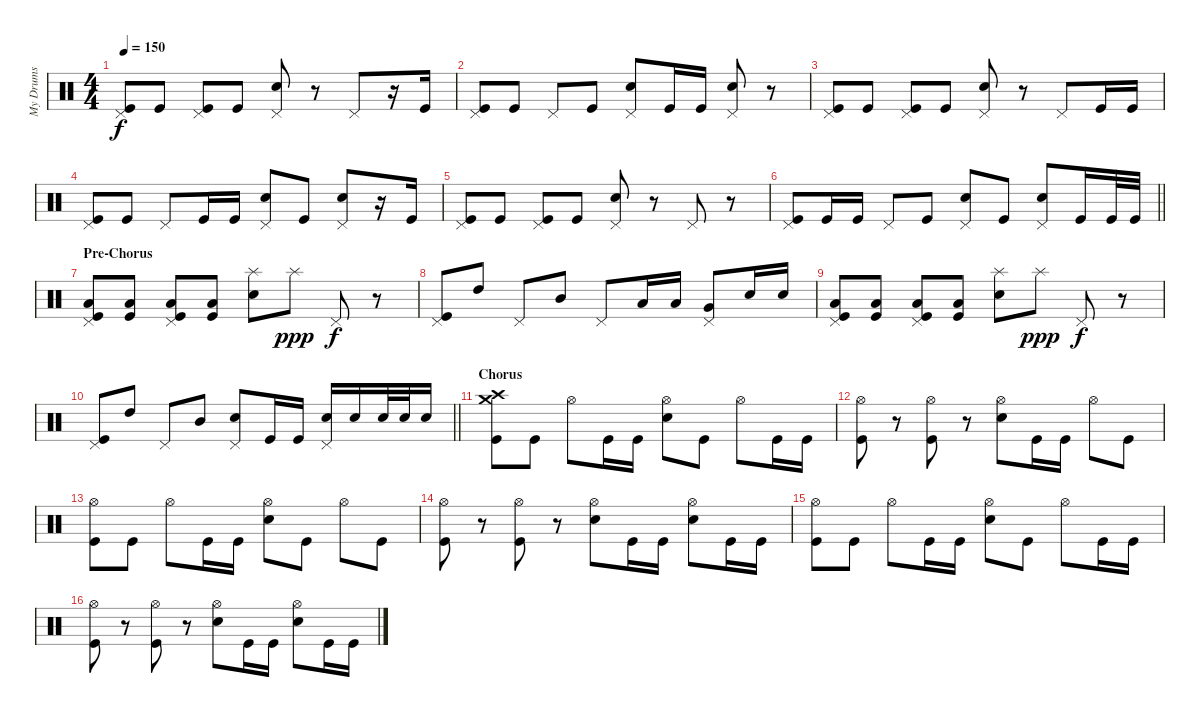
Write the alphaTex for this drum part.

\track ("My Drums" "My Drums") {instrument percussion}
\staff {score}
\articulation defaults
\ts (4 4)
\tempo 150
\clef neutral
\ks c
("Pedal Hi-Hat (hit)" "Kick (hit)").8{dy f} "Kick (hit)".8 ("Pedal Hi-Hat (hit)" "Kick (hit)").8 "Kick (hit)".8 ("Pedal Hi-Hat (hit)" "Snare (hit) 2").8 r.8 "Pedal Hi-Hat (hit)".8 r.16 "Kick (hit)".16 |
("Pedal Hi-Hat (hit)" "Kick (hit)").8 "Kick (hit)".8 "Pedal Hi-Hat (hit)".8 "Kick (hit)".8 ("Pedal Hi-Hat (hit)" "Snare (hit) 2").8 "Kick (hit)".16 "Kick (hit)".16 ("Pedal Hi-Hat (hit)" "Snare (hit) 2").8 r.8 |
("Pedal Hi-Hat (hit)" "Kick (hit)").8 "Kick (hit)".8 ("Pedal Hi-Hat (hit)" "Kick (hit)").8 "Kick (hit)".8 ("Pedal Hi-Hat (hit)" "Snare (hit) 2").8 r.8 "Pedal Hi-Hat (hit)".8 "Kick (hit)".16 "Kick (hit)".16 |
("Pedal Hi-Hat (hit)" "Kick (hit)").8 "Kick (hit)".8 "Pedal Hi-Hat (hit)".8 "Kick (hit)".16 "Kick (hit)".16 ("Pedal Hi-Hat (hit)" "Snare (hit) 2").8 "Kick (hit)".8 ("Pedal Hi-Hat (hit)" "Snare (hit) 2").8 r.16 "Kick (hit)".16 |
("Pedal Hi-Hat (hit)" "Kick (hit)").8 "Kick (hit)".8 ("Pedal Hi-Hat (hit)" "Kick (hit)").8 "Kick (hit)".8 ("Pedal Hi-Hat (hit)" "Snare (hit) 2").8 r.8 "Pedal Hi-Hat (hit)".8 r.8 |
\barLineRight lightlight
("Pedal Hi-Hat (hit)" "Kick (hit)").8 "Kick (hit)".16 "Kick (hit)".16 "Pedal Hi-Hat (hit)".8 "Kick (hit)".8 ("Pedal Hi-Hat (hit)" "Snare (hit) 2").8 "Kick (hit)".8 ("Pedal Hi-Hat (hit)" "Snare (hit) 2").8 "Kick (hit)".16 "Kick (hit)".32 "Kick (hit)".32 |
\section ("" "Pre-Chorus")
("Pedal Hi-Hat (hit)" "Low Floor Tom (hit)" "Kick (hit)").8 ("Low Floor Tom (hit)" "Kick (hit)").8 ("Pedal Hi-Hat (hit)" "Low Floor Tom (hit)" "Kick (hit)").8 ("Low Floor Tom (hit)" "Kick (hit)").8 ("Splash (hit)" "Snare (hit) 2").8 "Splash (hit)".8{dy ppp} "Pedal Hi-Hat (hit)".8{dy f} r.8 |
("Pedal Hi-Hat (hit)" "Kick (hit)").8 "High Tom (hit)".8 "Pedal Hi-Hat (hit)".8 "Mid Tom (hit)".8 "Pedal Hi-Hat (hit)".8 "Low Tom (hit)".16 "Low Tom (hit)".16 ("Pedal Hi-Hat (hit)" "Very Low Tom (hit)").8 "Snare (hit) 2".16 "Snare (hit) 2".16 |
("Pedal Hi-Hat (hit)" "Low Floor Tom (hit)" "Kick (hit)").8 ("Low Floor Tom (hit)" "Kick (hit)").8 ("Pedal Hi-Hat (hit)" "Low Floor Tom (hit)" "Kick (hit)").8 ("Low Floor Tom (hit)" "Kick (hit)").8 ("Splash (hit)" "Snare (hit) 2").8 "Splash (hit)".8{dy ppp} "Pedal Hi-Hat (hit)".8{dy f} r.8 |
\barLineRight lightlight
("Pedal Hi-Hat (hit)" "Kick (hit)").8 "High Tom (hit)".8 "Pedal Hi-Hat (hit)".8 "Mid Tom (hit)".8 ("Pedal Hi-Hat (hit)" "Snare (hit) 2").8 "Kick (hit)".16 "Kick (hit)".16 ("Pedal Hi-Hat (hit)" "Snare (hit) 2").16 "Snare (hit) 2".16 "Snare (hit) 2".32 "Snare (hit) 2".32 "Snare (hit) 2".16 |
\section ("" "Chorus")
("Crash high (hit)" "Crash medium (hit)" "Kick (hit)").8 "Kick (hit)".8 "Hi-Hat (open)".8 "Kick (hit)".16 "Kick (hit)".16 ("Hi-Hat (open)" "Snare (hit) 2").8 "Kick (hit)".8 "Hi-Hat (open)".8 "Kick (hit)".16 "Kick (hit)".16 |
("Hi-Hat (open)" "Kick (hit)").8 r.8 ("Hi-Hat (open)" "Kick (hit)").8 r.8 ("Hi-Hat (open)" "Snare (hit) 2").8 "Kick (hit)".16 "Kick (hit)".16 "Hi-Hat (open)".8 "Kick (hit)".8 |
("Hi-Hat (open)" "Kick (hit)").8 "Kick (hit)".8 "Hi-Hat (open)".8 "Kick (hit)".16 "Kick (hit)".16 ("Hi-Hat (open)" "Snare (hit) 2").8 "Kick (hit)".8 "Hi-Hat (open)".8 "Kick (hit)".8 |
("Hi-Hat (open)" "Kick (hit)").8 r.8 ("Hi-Hat (open)" "Kick (hit)").8 r.8 ("Hi-Hat (open)" "Snare (hit) 2").8 "Kick (hit)".16 "Kick (hit)".16 ("Hi-Hat (open)" "Snare (hit) 2").8 "Kick (hit)".16 "Kick (hit)".16 |
("Hi-Hat (open)" "Kick (hit)").8 "Kick (hit)".8 "Hi-Hat (open)".8 "Kick (hit)".16 "Kick (hit)".16 ("Hi-Hat (open)" "Snare (hit) 2").8 "Kick (hit)".8 "Hi-Hat (open)".8 "Kick (hit)".16 "Kick (hit)".16 |
("Hi-Hat (open)" "Kick (hit)").8 r.8 ("Hi-Hat (open)" "Kick (hit)").8 r.8 ("Hi-Hat (open)" "Snare (hit) 2").8 "Kick (hit)".16 "Kick (hit)".16 ("Hi-Hat (open)" "Snare (hit) 2").8 "Kick (hit)".16 "Kick (hit)".16
